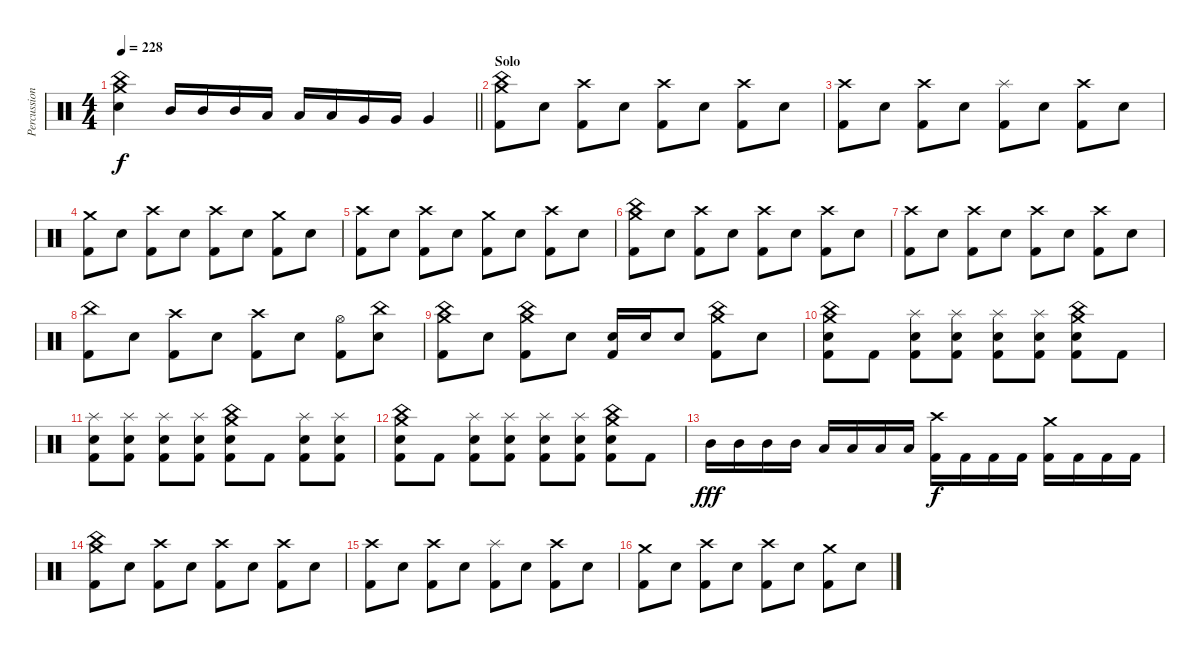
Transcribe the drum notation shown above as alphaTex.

\track ("Percussion" "Percussion") {instrument percussion}
\staff {score}
\articulation defaults
\ts (4 4)
\tempo 228
\clef neutral
\barLineRight lightlight
\ks c
("China (hit)" "Crash medium (hit)" "Electric Snare (hit)").4{dy f} "Mid Tom (hit)".16 "Mid Tom (hit)".16 "Mid Tom (hit)".16 "Low Tom (hit)".16 "Low Tom (hit)".16 "Low Tom (hit)".16 "Very Low Tom (hit)".16 "Very Low Tom (hit)".16 "Very Low Tom (hit)".4 |
\section ("" "Solo")
("China (hit)" "Crash medium (hit)" "Kick (hit) 2").8 "Electric Snare (hit)".8 ("Crash high (hit)" "Kick (hit) 2").8 "Electric Snare (hit)".8 ("Crash high (hit)" "Kick (hit) 2").8 "Electric Snare (hit)".8 ("Crash high (hit)" "Kick (hit) 2").8 "Electric Snare (hit)".8 |
("Crash high (hit)" "Kick (hit) 2").8 "Electric Snare (hit)".8 ("Crash high (hit)" "Kick (hit) 2").8 "Electric Snare (hit)".8 ("Splash (hit)" "Kick (hit) 2").8 "Electric Snare (hit)".8 ("Crash high (hit)" "Kick (hit) 2").8 "Electric Snare (hit)".8 |
("Crash medium (hit)" "Kick (hit) 2").8 "Electric Snare (hit)".8 ("Crash high (hit)" "Kick (hit) 2").8 "Electric Snare (hit)".8 ("Crash high (hit)" "Kick (hit) 2").8 "Electric Snare (hit)".8 ("Crash medium (hit)" "Kick (hit) 2").8 "Electric Snare (hit)".8 |
("Crash high (hit)" "Kick (hit) 2").8 "Electric Snare (hit)".8 ("Crash high (hit)" "Kick (hit) 2").8 "Electric Snare (hit)".8 ("Crash medium (hit)" "Kick (hit) 2").8 "Electric Snare (hit)".8 ("Crash high (hit)" "Kick (hit) 2").8 "Electric Snare (hit)".8 |
("China (hit)" "Crash medium (hit)" "Kick (hit) 2").8 "Electric Snare (hit)".8 ("Crash high (hit)" "Kick (hit) 2").8 "Electric Snare (hit)".8 ("Crash high (hit)" "Kick (hit) 2").8 "Electric Snare (hit)".8 ("Crash high (hit)" "Kick (hit) 2").8 "Electric Snare (hit)".8 |
("Crash high (hit)" "Kick (hit) 2").8 "Electric Snare (hit)".8 ("Crash high (hit)" "Kick (hit) 2").8 "Electric Snare (hit)".8 ("Crash high (hit)" "Kick (hit) 2").8 "Electric Snare (hit)".8 ("Crash high (hit)" "Kick (hit) 2").8 "Electric Snare (hit)".8 |
("China (hit)" "Kick (hit) 2").8 "Electric Snare (hit)".8 ("Crash high (hit)" "Kick (hit) 2").8 "Electric Snare (hit)".8 ("Crash high (hit)" "Kick (hit) 2").8 "Electric Snare (hit)".8 ("Hi-Hat (open)" "Kick (hit) 2").8 ("China (hit)" "Electric Snare (hit)").8 |
("China (hit)" "Crash medium (hit)" "Kick (hit) 2").8 "Electric Snare (hit)".8 ("China (hit)" "Crash medium (hit)" "Kick (hit) 2").8 "Electric Snare (hit)".8 ("Electric Snare (hit)" "Kick (hit) 2").16 "Electric Snare (hit)".16 "Electric Snare (hit)".8 ("China (hit)" "Crash medium (hit)" "Kick (hit) 2").8 "Electric Snare (hit)".8 |
("China (hit)" "Crash medium (hit)" "Electric Snare (hit)" "Kick (hit) 2").8 "Kick (hit) 2".8 ("Splash (hit)" "Electric Snare (hit)" "Kick (hit) 2").8 ("Splash (hit)" "Electric Snare (hit)" "Kick (hit) 2").8 ("Splash (hit)" "Electric Snare (hit)" "Kick (hit) 2").8 ("Splash (hit)" "Electric Snare (hit)" "Kick (hit) 2").8 ("China (hit)" "Crash medium (hit)" "Electric Snare (hit)" "Kick (hit) 2").8 "Kick (hit) 2".8 |
("Splash (hit)" "Electric Snare (hit)" "Kick (hit) 2").8 ("Splash (hit)" "Electric Snare (hit)" "Kick (hit) 2").8 ("Splash (hit)" "Electric Snare (hit)" "Kick (hit) 2").8 ("Splash (hit)" "Electric Snare (hit)" "Kick (hit) 2").8 ("Crash medium (hit)" "China (hit)" "Electric Snare (hit)" "Kick (hit) 2").8 "Kick (hit) 2".8 ("Splash (hit)" "Electric Snare (hit)" "Kick (hit) 2").8 ("Splash (hit)" "Electric Snare (hit)" "Kick (hit) 2").8 |
("China (hit)" "Crash medium (hit)" "Electric Snare (hit)" "Kick (hit) 2").8 "Kick (hit) 2".8 ("Splash (hit)" "Electric Snare (hit)" "Kick (hit) 2").8 ("Splash (hit)" "Electric Snare (hit)" "Kick (hit) 2").8 ("Splash (hit)" "Electric Snare (hit)" "Kick (hit) 2").8 ("Splash (hit)" "Electric Snare (hit)" "Kick (hit) 2").8 ("China (hit)" "Crash medium (hit)" "Electric Snare (hit)" "Kick (hit) 2").8 "Kick (hit) 2".8 |
"Mid Tom (hit)".16{dy fff} "Mid Tom (hit)".16 "Mid Tom (hit)".16 "Mid Tom (hit)".16 "Low Tom (hit)".16 "Low Tom (hit)".16 "Low Tom (hit)".16 "Low Tom (hit)".16 ("Crash high (hit)" "Kick (hit) 2").16{dy f} "Kick (hit) 2".16 "Kick (hit) 2".16 "Kick (hit) 2".16 ("Crash medium (hit)" "Kick (hit) 2").16 "Kick (hit) 2".16 "Kick (hit) 2".16 "Kick (hit) 2".16 |
("China (hit)" "Crash medium (hit)" "Kick (hit) 2").8 "Electric Snare (hit)".8 ("Crash high (hit)" "Kick (hit) 2").8 "Electric Snare (hit)".8 ("Crash high (hit)" "Kick (hit) 2").8 "Electric Snare (hit)".8 ("Crash high (hit)" "Kick (hit) 2").8 "Electric Snare (hit)".8 |
("Crash high (hit)" "Kick (hit) 2").8 "Electric Snare (hit)".8 ("Crash high (hit)" "Kick (hit) 2").8 "Electric Snare (hit)".8 ("Splash (hit)" "Kick (hit) 2").8 "Electric Snare (hit)".8 ("Crash high (hit)" "Kick (hit) 2").8 "Electric Snare (hit)".8 |
("Crash medium (hit)" "Kick (hit) 2").8 "Electric Snare (hit)".8 ("Crash high (hit)" "Kick (hit) 2").8 "Electric Snare (hit)".8 ("Crash high (hit)" "Kick (hit) 2").8 "Electric Snare (hit)".8 ("Crash medium (hit)" "Kick (hit) 2").8 "Electric Snare (hit)".8
